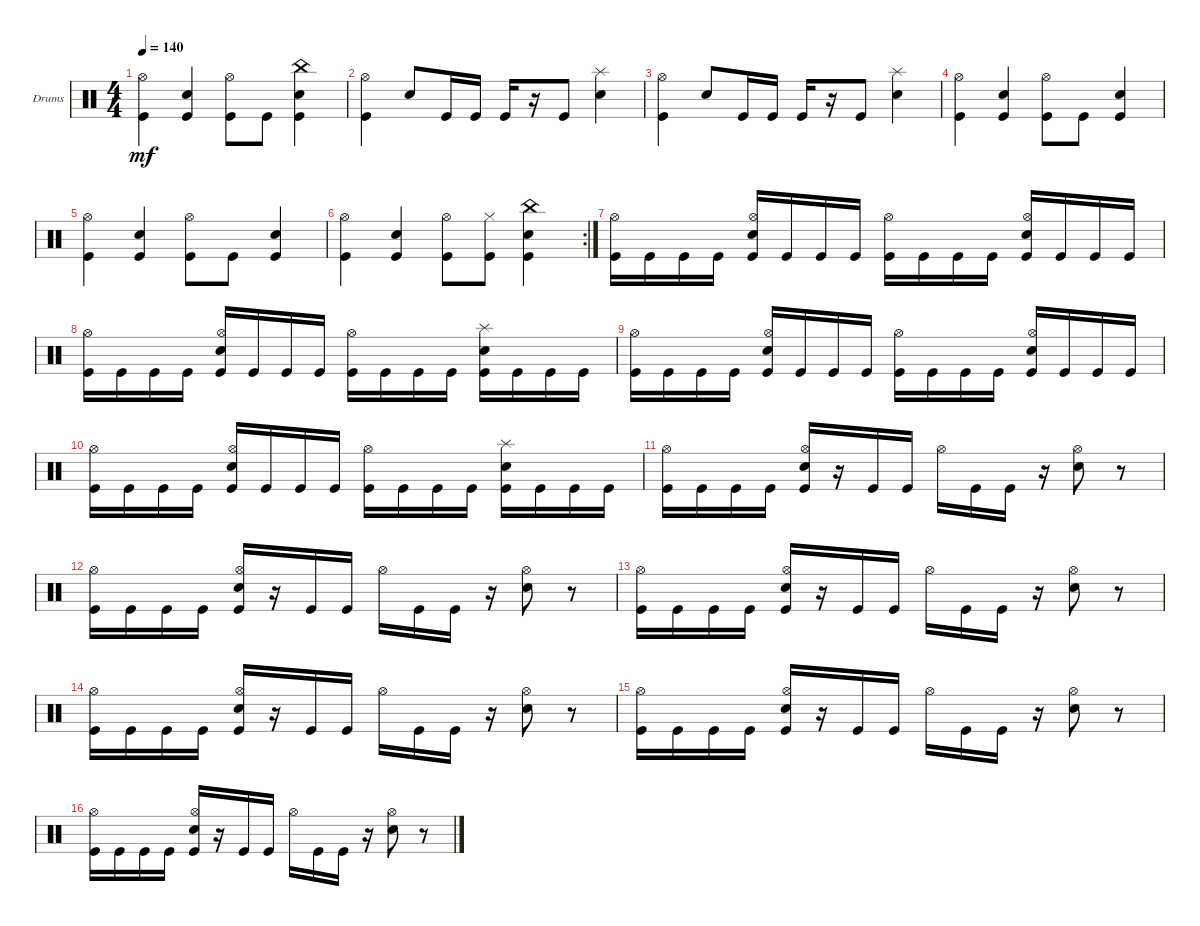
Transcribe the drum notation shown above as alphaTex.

\defaultSystemsLayout 4
\bracketExtendMode groupsimilarinstruments
\firstSystemTrackNameOrientation horizontal
\otherSystemsTrackNameOrientation horizontal
\track ("Drumkit" "Drums") {instrument percussion}
\staff {score}
\articulation defaults
\ts (4 4)
\tempo 140
\clef neutral
\scale
0.333333
\ks c
("Kick (hit)" "Hi-Hat (open)").4{dy mf} ("Kick (hit)" "Snare (hit) 2").4 ("Kick (hit)" "Hi-Hat (open)").8 "Kick (hit)".8 ("Kick (hit)" "Snare (hit) 2" "China (hit)").4 |
\scale
0.333333 ("Kick (hit)" "Hi-Hat (open)").4 "Snare (hit) 2".8 "Kick (hit)".16 "Kick (hit)".16 "Kick (hit)".16 r.16 "Kick (hit)".8 ("Snare (hit) 2" "Splash (hit)").4 |
\scale
0.333333 ("Kick (hit)" "Hi-Hat (open)").4 "Snare (hit) 2".8 "Kick (hit)".16 "Kick (hit)".16 "Kick (hit)".16 r.16 "Kick (hit)".8 ("Snare (hit) 2" "Splash (hit)").4 |
\scale
0.333333 ("Kick (hit)" "Hi-Hat (open)").4 ("Kick (hit)" "Snare (hit) 2").4 ("Kick (hit)" "Hi-Hat (open)").8 "Kick (hit)".8 ("Kick (hit)" "Snare (hit) 2").4 |
\scale
0.322034 ("Kick (hit)" "Hi-Hat (open)").4 ("Kick (hit)" "Snare (hit) 2").4 ("Kick (hit)" "Hi-Hat (open)").8 "Kick (hit)".8 ("Kick (hit)" "Snare (hit) 2").4 |
\rc 2
\scale
0.355932 ("Kick (hit)" "Hi-Hat (open)").4 ("Kick (hit)" "Snare (hit) 2").4 ("Kick (hit)" "Hi-Hat (open)").8 ("Kick (hit)" "Hi-Hat (closed)").8 ("Kick (hit)" "Snare (hit) 2" "China (hit)").4 |
\scale
0.322034 ("Kick (hit)" "Hi-Hat (open)").16 "Kick (hit)".16 "Kick (hit)".16 "Kick (hit)".16 ("Kick (hit)" "Snare (hit) 2" "Hi-Hat (open)").16 "Kick (hit)".16 "Kick (hit)".16 "Kick (hit)".16 ("Kick (hit)" "Hi-Hat (open)").16 "Kick (hit)".16 "Kick (hit)".16 "Kick (hit)".16 ("Kick (hit)" "Snare (hit) 2" "Hi-Hat (open)").16 "Kick (hit)".16 "Kick (hit)".16 "Kick (hit)".16 |
\scale
0.333333 ("Kick (hit)" "Hi-Hat (open)").16 "Kick (hit)".16 "Kick (hit)".16 "Kick (hit)".16 ("Kick (hit)" "Snare (hit) 2" "Hi-Hat (open)").16 "Kick (hit)".16 "Kick (hit)".16 "Kick (hit)".16 ("Kick (hit)" "Hi-Hat (open)").16 "Kick (hit)".16 "Kick (hit)".16 "Kick (hit)".16 ("Kick (hit)" "Snare (hit) 2" "Splash (hit)").16 "Kick (hit)".16 "Kick (hit)".16 "Kick (hit)".16 |
\scale
0.333333 ("Kick (hit)" "Hi-Hat (open)").16 "Kick (hit)".16 "Kick (hit)".16 "Kick (hit)".16 ("Kick (hit)" "Snare (hit) 2" "Hi-Hat (open)").16 "Kick (hit)".16 "Kick (hit)".16 "Kick (hit)".16 ("Kick (hit)" "Hi-Hat (open)").16 "Kick (hit)".16 "Kick (hit)".16 "Kick (hit)".16 ("Kick (hit)" "Snare (hit) 2" "Hi-Hat (open)").16 "Kick (hit)".16 "Kick (hit)".16 "Kick (hit)".16 |
\scale
0.333333 ("Kick (hit)" "Hi-Hat (open)").16 "Kick (hit)".16 "Kick (hit)".16 "Kick (hit)".16 ("Kick (hit)" "Snare (hit) 2" "Hi-Hat (open)").16 "Kick (hit)".16 "Kick (hit)".16 "Kick (hit)".16 ("Kick (hit)" "Hi-Hat (open)").16 "Kick (hit)".16 "Kick (hit)".16 "Kick (hit)".16 ("Kick (hit)" "Snare (hit) 2" "Splash (hit)").16 "Kick (hit)".16 "Kick (hit)".16 "Kick (hit)".16 |
\scale
0.333333 ("Kick (hit)" "Hi-Hat (open)").16 "Kick (hit)".16 "Kick (hit)".16 "Kick (hit)".16 ("Kick (hit)" "Snare (hit) 2" "Hi-Hat (open)").16 r.16 "Kick (hit)".16 "Kick (hit)".16 "Hi-Hat (open)".16 "Kick (hit)".16 "Kick (hit)".16 r.16 ("Snare (hit) 2" "Hi-Hat (open)").8 r.8 |
\scale
0.333333 ("Kick (hit)" "Hi-Hat (open)").16 "Kick (hit)".16 "Kick (hit)".16 "Kick (hit)".16 ("Kick (hit)" "Snare (hit) 2" "Hi-Hat (open)").16 r.16 "Kick (hit)".16 "Kick (hit)".16 "Hi-Hat (open)".16 "Kick (hit)".16 "Kick (hit)".16 r.16 ("Snare (hit) 2" "Hi-Hat (open)").8 r.8 |
\scale
0.333333 ("Kick (hit)" "Hi-Hat (open)").16 "Kick (hit)".16 "Kick (hit)".16 "Kick (hit)".16 ("Kick (hit)" "Snare (hit) 2" "Hi-Hat (open)").16 r.16 "Kick (hit)".16 "Kick (hit)".16 "Hi-Hat (open)".16 "Kick (hit)".16 "Kick (hit)".16 r.16 ("Snare (hit) 2" "Hi-Hat (open)").8 r.8 |
\scale
0.333333 ("Kick (hit)" "Hi-Hat (open)").16 "Kick (hit)".16 "Kick (hit)".16 "Kick (hit)".16 ("Kick (hit)" "Snare (hit) 2" "Hi-Hat (open)").16 r.16 "Kick (hit)".16 "Kick (hit)".16 "Hi-Hat (open)".16 "Kick (hit)".16 "Kick (hit)".16 r.16 ("Snare (hit) 2" "Hi-Hat (open)").8 r.8 |
\scale
0.333333 ("Kick (hit)" "Hi-Hat (open)").16 "Kick (hit)".16 "Kick (hit)".16 "Kick (hit)".16 ("Kick (hit)" "Snare (hit) 2" "Hi-Hat (open)").16 r.16 "Kick (hit)".16 "Kick (hit)".16 "Hi-Hat (open)".16 "Kick (hit)".16 "Kick (hit)".16 r.16 ("Snare (hit) 2" "Hi-Hat (open)").8 r.8 |
\scale
0.333333 ("Kick (hit)" "Hi-Hat (open)").16 "Kick (hit)".16 "Kick (hit)".16 "Kick (hit)".16 ("Kick (hit)" "Snare (hit) 2" "Hi-Hat (open)").16 r.16 "Kick (hit)".16 "Kick (hit)".16 "Hi-Hat (open)".16 "Kick (hit)".16 "Kick (hit)".16 r.16 ("Snare (hit) 2" "Hi-Hat (open)").8 r.8
